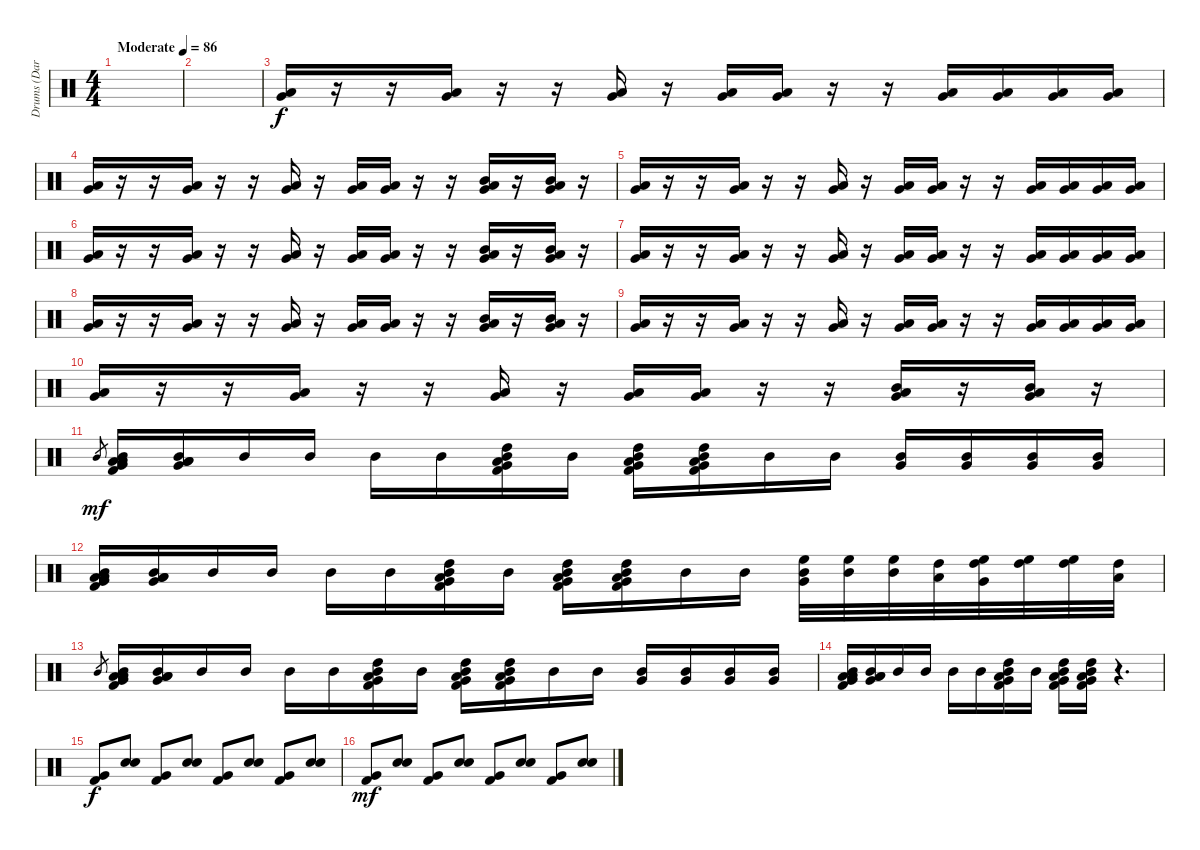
\track ("Drums (Daray) " "Drums (Dar") {instrument percussion}
\staff {score}
\articulation defaults
\ts (4 4)
\tempo (86 "Moderate")
\clef neutral
\ks c
|
|
("Very Low Tom (hit)" "Low Tom (hit)").16 r.16 r.16 ("Very Low Tom (hit)" "Low Tom (hit)").16 r.16 r.16 ("Very Low Tom (hit)" "Low Tom (hit)").16 r.16 ("Very Low Tom (hit)" "Low Tom (hit)").16 ("Very Low Tom (hit)" "Low Tom (hit)").16 r.16 r.16 ("Low Tom (hit)" "Very Low Tom (hit)").16 ("Low Tom (hit)" "Very Low Tom (hit)").16 ("Low Tom (hit)" "Very Low Tom (hit)").16 ("Low Tom (hit)" "Very Low Tom (hit)").16 |
("Very Low Tom (hit)" "Low Tom (hit)").16 r.16 r.16 ("Very Low Tom (hit)" "Low Tom (hit)").16 r.16 r.16 ("Very Low Tom (hit)" "Low Tom (hit)").16 r.16 ("Very Low Tom (hit)" "Low Tom (hit)").16 ("Very Low Tom (hit)" "Low Tom (hit)").16 r.16 r.16 ("Mid Tom (hit)" "Low Tom (hit)" "Very Low Tom (hit)").16 r.16 ("Mid Tom (hit)" "Low Tom (hit)" "Very Low Tom (hit)").16 r.16 |
("Very Low Tom (hit)" "Low Tom (hit)").16 r.16 r.16 ("Very Low Tom (hit)" "Low Tom (hit)").16 r.16 r.16 ("Very Low Tom (hit)" "Low Tom (hit)").16 r.16 ("Very Low Tom (hit)" "Low Tom (hit)").16 ("Very Low Tom (hit)" "Low Tom (hit)").16 r.16 r.16 ("Low Tom (hit)" "Very Low Tom (hit)").16 ("Low Tom (hit)" "Very Low Tom (hit)").16 ("Low Tom (hit)" "Very Low Tom (hit)").16 ("Low Tom (hit)" "Very Low Tom (hit)").16 |
("Very Low Tom (hit)" "Low Tom (hit)").16 r.16 r.16 ("Very Low Tom (hit)" "Low Tom (hit)").16 r.16 r.16 ("Very Low Tom (hit)" "Low Tom (hit)").16 r.16 ("Very Low Tom (hit)" "Low Tom (hit)").16 ("Very Low Tom (hit)" "Low Tom (hit)").16 r.16 r.16 ("Mid Tom (hit)" "Low Tom (hit)" "Very Low Tom (hit)").16 r.16 ("Mid Tom (hit)" "Low Tom (hit)" "Very Low Tom (hit)").16 r.16 |
("Very Low Tom (hit)" "Low Tom (hit)").16 r.16 r.16 ("Very Low Tom (hit)" "Low Tom (hit)").16 r.16 r.16 ("Very Low Tom (hit)" "Low Tom (hit)").16 r.16 ("Very Low Tom (hit)" "Low Tom (hit)").16 ("Very Low Tom (hit)" "Low Tom (hit)").16 r.16 r.16 ("Low Tom (hit)" "Very Low Tom (hit)").16 ("Low Tom (hit)" "Very Low Tom (hit)").16 ("Low Tom (hit)" "Very Low Tom (hit)").16 ("Low Tom (hit)" "Very Low Tom (hit)").16 |
("Very Low Tom (hit)" "Low Tom (hit)").16 r.16 r.16 ("Very Low Tom (hit)" "Low Tom (hit)").16 r.16 r.16 ("Very Low Tom (hit)" "Low Tom (hit)").16 r.16 ("Very Low Tom (hit)" "Low Tom (hit)").16 ("Very Low Tom (hit)" "Low Tom (hit)").16 r.16 r.16 ("Mid Tom (hit)" "Low Tom (hit)" "Very Low Tom (hit)").16 r.16 ("Mid Tom (hit)" "Low Tom (hit)" "Very Low Tom (hit)").16 r.16 |
("Very Low Tom (hit)" "Low Tom (hit)").16 r.16 r.16 ("Very Low Tom (hit)" "Low Tom (hit)").16 r.16 r.16 ("Very Low Tom (hit)" "Low Tom (hit)").16 r.16 ("Very Low Tom (hit)" "Low Tom (hit)").16 ("Very Low Tom (hit)" "Low Tom (hit)").16 r.16 r.16 ("Low Tom (hit)" "Very Low Tom (hit)").16 ("Low Tom (hit)" "Very Low Tom (hit)").16 ("Low Tom (hit)" "Very Low Tom (hit)").16 ("Low Tom (hit)" "Very Low Tom (hit)").16 |
("Very Low Tom (hit)" "Low Tom (hit)").16 r.16 r.16 ("Very Low Tom (hit)" "Low Tom (hit)").16 r.16 r.16 ("Very Low Tom (hit)" "Low Tom (hit)").16 r.16 ("Very Low Tom (hit)" "Low Tom (hit)").16 ("Very Low Tom (hit)" "Low Tom (hit)").16 r.16 r.16 ("Mid Tom (hit)" "Low Tom (hit)" "Very Low Tom (hit)").16 r.16 ("Mid Tom (hit)" "Low Tom (hit)" "Very Low Tom (hit)").16 r.16 |
"Mid Tom (hit)".8{gr dy mf} ("Very Low Tom (hit)" "Low Tom (hit)" "Kick (hit) 2" "Mid Tom (hit)" "Low Tom (hit)").16 ("Very Low Tom (hit)" "Low Tom (hit)" "Low Tom (hit)" "Mid Tom (hit)").16 "Mid Tom (hit)".16 "Mid Tom (hit)".16 "Mid Tom (hit)".16 "Mid Tom (hit)".16 ("Low Tom (hit)" "Very Low Tom (hit)" "Kick (hit) 2" "Mid Tom (hit)" "High Tom (hit)").16 "Mid Tom (hit)".16 ("Low Tom (hit)" "Very Low Tom (hit)" "Kick (hit) 2" "Mid Tom (hit)" "High Tom (hit)").16 ("Low Tom (hit)" "Very Low Tom (hit)" "Kick (hit) 2" "Mid Tom (hit)" "High Tom (hit)").16 "Mid Tom (hit)".16 "Mid Tom (hit)".16 ("Very Low Tom (hit)" "Mid Tom (hit)").16 ("Very Low Tom (hit)" "Mid Tom (hit)").16 ("Very Low Tom (hit)" "Mid Tom (hit)").16 ("Very Low Tom (hit)" "Mid Tom (hit)").16 |
("Very Low Tom (hit)" "Low Tom (hit)" "Kick (hit) 2" "Mid Tom (hit)" "Low Tom (hit)").16 ("Very Low Tom (hit)" "Low Tom (hit)" "Low Tom (hit)" "Mid Tom (hit)").16 "Mid Tom (hit)".16 "Mid Tom (hit)".16 "Mid Tom (hit)".16 "Mid Tom (hit)".16 ("Low Tom (hit)" "Very Low Tom (hit)" "Kick (hit) 2" "Mid Tom (hit)" "High Tom (hit)").16 "Mid Tom (hit)".16 ("Low Tom (hit)" "Very Low Tom (hit)" "Kick (hit) 2" "Mid Tom (hit)" "High Tom (hit)").16 ("Low Tom (hit)" "Very Low Tom (hit)" "Kick (hit) 2" "Mid Tom (hit)" "High Tom (hit)").16 "Mid Tom (hit)".16 "Mid Tom (hit)".16 ("High Floor Tom (hit)" "Mid Tom (hit)" "Very Low Tom (hit)").32 ("High Floor Tom (hit)" "Mid Tom (hit)").32 ("High Floor Tom (hit)" "Mid Tom (hit)").32 ("High Tom (hit)" "Low Tom (hit)").32 ("High Floor Tom (hit)" "High Tom (hit)" "Very Low Tom (hit)").32 ("High Floor Tom (hit)" "High Tom (hit)").32 ("High Floor Tom (hit)" "High Tom (hit)").32 ("High Tom (hit)" "Low Tom (hit)").32 |
"Mid Tom (hit)".8{gr} ("Very Low Tom (hit)" "Low Tom (hit)" "Kick (hit) 2" "Mid Tom (hit)" "Low Tom (hit)").16 ("Very Low Tom (hit)" "Low Tom (hit)" "Low Tom (hit)" "Mid Tom (hit)").16 "Mid Tom (hit)".16 "Mid Tom (hit)".16 "Mid Tom (hit)".16 "Mid Tom (hit)".16 ("Low Tom (hit)" "Very Low Tom (hit)" "Kick (hit) 2" "Mid Tom (hit)" "High Tom (hit)").16 "Mid Tom (hit)".16 ("Low Tom (hit)" "Very Low Tom (hit)" "Kick (hit) 2" "Mid Tom (hit)" "High Tom (hit)").16 ("Low Tom (hit)" "Very Low Tom (hit)" "Kick (hit) 2" "Mid Tom (hit)" "High Tom (hit)").16 "Mid Tom (hit)".16 "Mid Tom (hit)".16 ("Very Low Tom (hit)" "Mid Tom (hit)").16 ("Very Low Tom (hit)" "Mid Tom (hit)").16 ("Very Low Tom (hit)" "Mid Tom (hit)").16 ("Very Low Tom (hit)" "Mid Tom (hit)").16 |
("Very Low Tom (hit)" "Low Tom (hit)" "Kick (hit) 2" "Mid Tom (hit)" "Low Tom (hit)").16 ("Very Low Tom (hit)" "Low Tom (hit)" "Low Tom (hit)" "Mid Tom (hit)").16 "Mid Tom (hit)".16 "Mid Tom (hit)".16 "Mid Tom (hit)".16 "Mid Tom (hit)".16 ("Low Tom (hit)" "Very Low Tom (hit)" "Kick (hit) 2" "Mid Tom (hit)" "High Tom (hit)").16 "Mid Tom (hit)".16 ("Low Tom (hit)" "Very Low Tom (hit)" "Kick (hit) 2" "Mid Tom (hit)" "High Tom (hit)").16 ("Low Tom (hit)" "Very Low Tom (hit)" "Kick (hit) 2" "Mid Tom (hit)" "High Tom (hit)").16 r.4{d} |
("Very Low Tom (hit)" "Kick (hit) 2").8{dy f} ("Electric Snare (hit)" "Electric Snare (hit)").8 ("Very Low Tom (hit)" "Kick (hit) 2").8 ("Electric Snare (hit)" "Electric Snare (hit)").8 ("Very Low Tom (hit)" "Kick (hit) 2").8 ("Electric Snare (hit)" "Electric Snare (hit)").8 ("Very Low Tom (hit)" "Kick (hit) 2").8 ("Electric Snare (hit)" "Electric Snare (hit)").8 |
("Very Low Tom (hit)" "Kick (hit) 2").8{dy mf} ("Electric Snare (hit)" "Electric Snare (hit)").8 ("Very Low Tom (hit)" "Kick (hit) 2").8 ("Electric Snare (hit)" "Electric Snare (hit)").8 ("Very Low Tom (hit)" "Kick (hit) 2").8 ("Electric Snare (hit)" "Electric Snare (hit)").8 ("Very Low Tom (hit)" "Kick (hit) 2").8 ("Electric Snare (hit)" "Electric Snare (hit)").8
